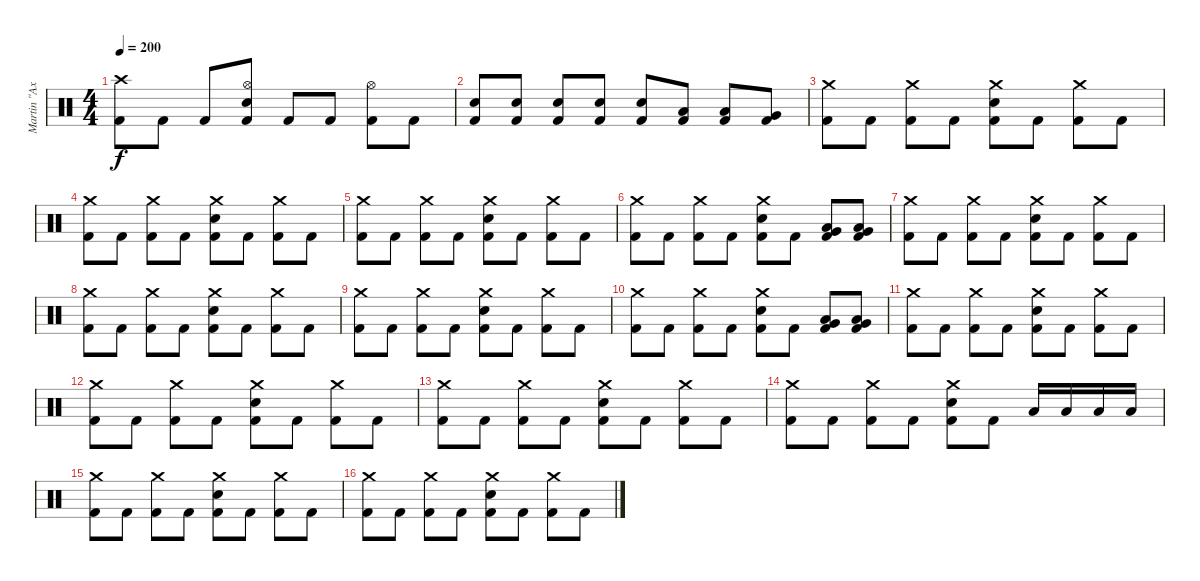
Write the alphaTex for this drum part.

\track ("Martin \"Axe\" Axenrot" "Martin \"Ax") {instrument percussion}
\staff {score}
\articulation defaults
\ts (4 4)
\tempo 200
\clef neutral
\ks c
("Crash high (hit)" "Kick (hit) 2").8{dy f} "Kick (hit) 2".8 "Kick (hit) 2".8 ("Hi-Hat (open)" "Electric Snare (hit)" "Kick (hit) 2").8 "Kick (hit) 2".8 "Kick (hit) 2".8 ("Hi-Hat (open)" "Kick (hit) 2").8 "Kick (hit) 2".8 |
("Electric Snare (hit)" "Kick (hit) 2").8 ("Electric Snare (hit)" "Kick (hit) 2").8 ("Electric Snare (hit)" "Kick (hit) 2").8 ("Electric Snare (hit)" "Kick (hit) 2").8 ("Electric Snare (hit)" "Kick (hit) 2").8 ("Low Tom (hit)" "Kick (hit) 2").8 ("Low Tom (hit)" "Kick (hit) 2").8 ("Very Low Tom (hit)" "Kick (hit) 2").8 |
("Crash medium (hit)" "Kick (hit) 2").8 "Kick (hit) 2".8 ("Crash medium (hit)" "Kick (hit) 2").8 "Kick (hit) 2".8 ("Crash medium (hit)" "Electric Snare (hit)" "Kick (hit) 2").8 "Kick (hit) 2".8 ("Crash medium (hit)" "Kick (hit) 2").8 "Kick (hit) 2".8 |
("Crash medium (hit)" "Kick (hit) 2").8 "Kick (hit) 2".8 ("Crash medium (hit)" "Kick (hit) 2").8 "Kick (hit) 2".8 ("Crash medium (hit)" "Electric Snare (hit)" "Kick (hit) 2").8 "Kick (hit) 2".8 ("Crash medium (hit)" "Kick (hit) 2").8 "Kick (hit) 2".8 |
("Crash medium (hit)" "Kick (hit) 2").8 "Kick (hit) 2".8 ("Crash medium (hit)" "Kick (hit) 2").8 "Kick (hit) 2".8 ("Crash medium (hit)" "Electric Snare (hit)" "Kick (hit) 2").8 "Kick (hit) 2".8 ("Crash medium (hit)" "Kick (hit) 2").8 "Kick (hit) 2".8 |
("Crash medium (hit)" "Kick (hit) 2").8 "Kick (hit) 2".8 ("Crash medium (hit)" "Kick (hit) 2").8 "Kick (hit) 2".8 ("Crash medium (hit)" "Electric Snare (hit)" "Kick (hit) 2").8 "Kick (hit) 2".8 ("Very Low Tom (hit)" "Low Floor Tom (hit)" "Kick (hit) 2").8 ("Very Low Tom (hit)" "Low Floor Tom (hit)" "Kick (hit) 2").8 |
("Crash medium (hit)" "Kick (hit) 2").8 "Kick (hit) 2".8 ("Crash medium (hit)" "Kick (hit) 2").8 "Kick (hit) 2".8 ("Crash medium (hit)" "Electric Snare (hit)" "Kick (hit) 2").8 "Kick (hit) 2".8 ("Crash medium (hit)" "Kick (hit) 2").8 "Kick (hit) 2".8 |
("Crash medium (hit)" "Kick (hit) 2").8 "Kick (hit) 2".8 ("Crash medium (hit)" "Kick (hit) 2").8 "Kick (hit) 2".8 ("Crash medium (hit)" "Electric Snare (hit)" "Kick (hit) 2").8 "Kick (hit) 2".8 ("Crash medium (hit)" "Kick (hit) 2").8 "Kick (hit) 2".8 |
("Crash medium (hit)" "Kick (hit) 2").8 "Kick (hit) 2".8 ("Crash medium (hit)" "Kick (hit) 2").8 "Kick (hit) 2".8 ("Crash medium (hit)" "Electric Snare (hit)" "Kick (hit) 2").8 "Kick (hit) 2".8 ("Crash medium (hit)" "Kick (hit) 2").8 "Kick (hit) 2".8 |
("Crash medium (hit)" "Kick (hit) 2").8 "Kick (hit) 2".8 ("Crash medium (hit)" "Kick (hit) 2").8 "Kick (hit) 2".8 ("Crash medium (hit)" "Electric Snare (hit)" "Kick (hit) 2").8 "Kick (hit) 2".8 ("Very Low Tom (hit)" "Low Floor Tom (hit)" "Kick (hit) 2").8 ("Very Low Tom (hit)" "Low Floor Tom (hit)" "Kick (hit) 2").8 |
("Crash medium (hit)" "Kick (hit) 2").8 "Kick (hit) 2".8 ("Crash medium (hit)" "Kick (hit) 2").8 "Kick (hit) 2".8 ("Crash medium (hit)" "Electric Snare (hit)" "Kick (hit) 2").8 "Kick (hit) 2".8 ("Crash medium (hit)" "Kick (hit) 2").8 "Kick (hit) 2".8 |
("Crash medium (hit)" "Kick (hit) 2").8 "Kick (hit) 2".8 ("Crash medium (hit)" "Kick (hit) 2").8 "Kick (hit) 2".8 ("Crash medium (hit)" "Electric Snare (hit)" "Kick (hit) 2").8 "Kick (hit) 2".8 ("Crash medium (hit)" "Kick (hit) 2").8 "Kick (hit) 2".8 |
("Crash medium (hit)" "Kick (hit) 2").8 "Kick (hit) 2".8 ("Crash medium (hit)" "Kick (hit) 2").8 "Kick (hit) 2".8 ("Crash medium (hit)" "Electric Snare (hit)" "Kick (hit) 2").8 "Kick (hit) 2".8 ("Crash medium (hit)" "Kick (hit) 2").8 "Kick (hit) 2".8 |
("Crash medium (hit)" "Kick (hit) 2").8 "Kick (hit) 2".8 ("Crash medium (hit)" "Kick (hit) 2").8 "Kick (hit) 2".8 ("Crash medium (hit)" "Electric Snare (hit)" "Kick (hit) 2").8 "Kick (hit) 2".8 "Low Tom (hit)".16 "Low Tom (hit)".16 "Low Tom (hit)".16 "Low Tom (hit)".16 |
("Crash medium (hit)" "Kick (hit) 2").8 "Kick (hit) 2".8 ("Crash medium (hit)" "Kick (hit) 2").8 "Kick (hit) 2".8 ("Crash medium (hit)" "Electric Snare (hit)" "Kick (hit) 2").8 "Kick (hit) 2".8 ("Crash medium (hit)" "Kick (hit) 2").8 "Kick (hit) 2".8 |
("Crash medium (hit)" "Kick (hit) 2").8 "Kick (hit) 2".8 ("Crash medium (hit)" "Kick (hit) 2").8 "Kick (hit) 2".8 ("Crash medium (hit)" "Electric Snare (hit)" "Kick (hit) 2").8 "Kick (hit) 2".8 ("Crash medium (hit)" "Kick (hit) 2").8 "Kick (hit) 2".8
